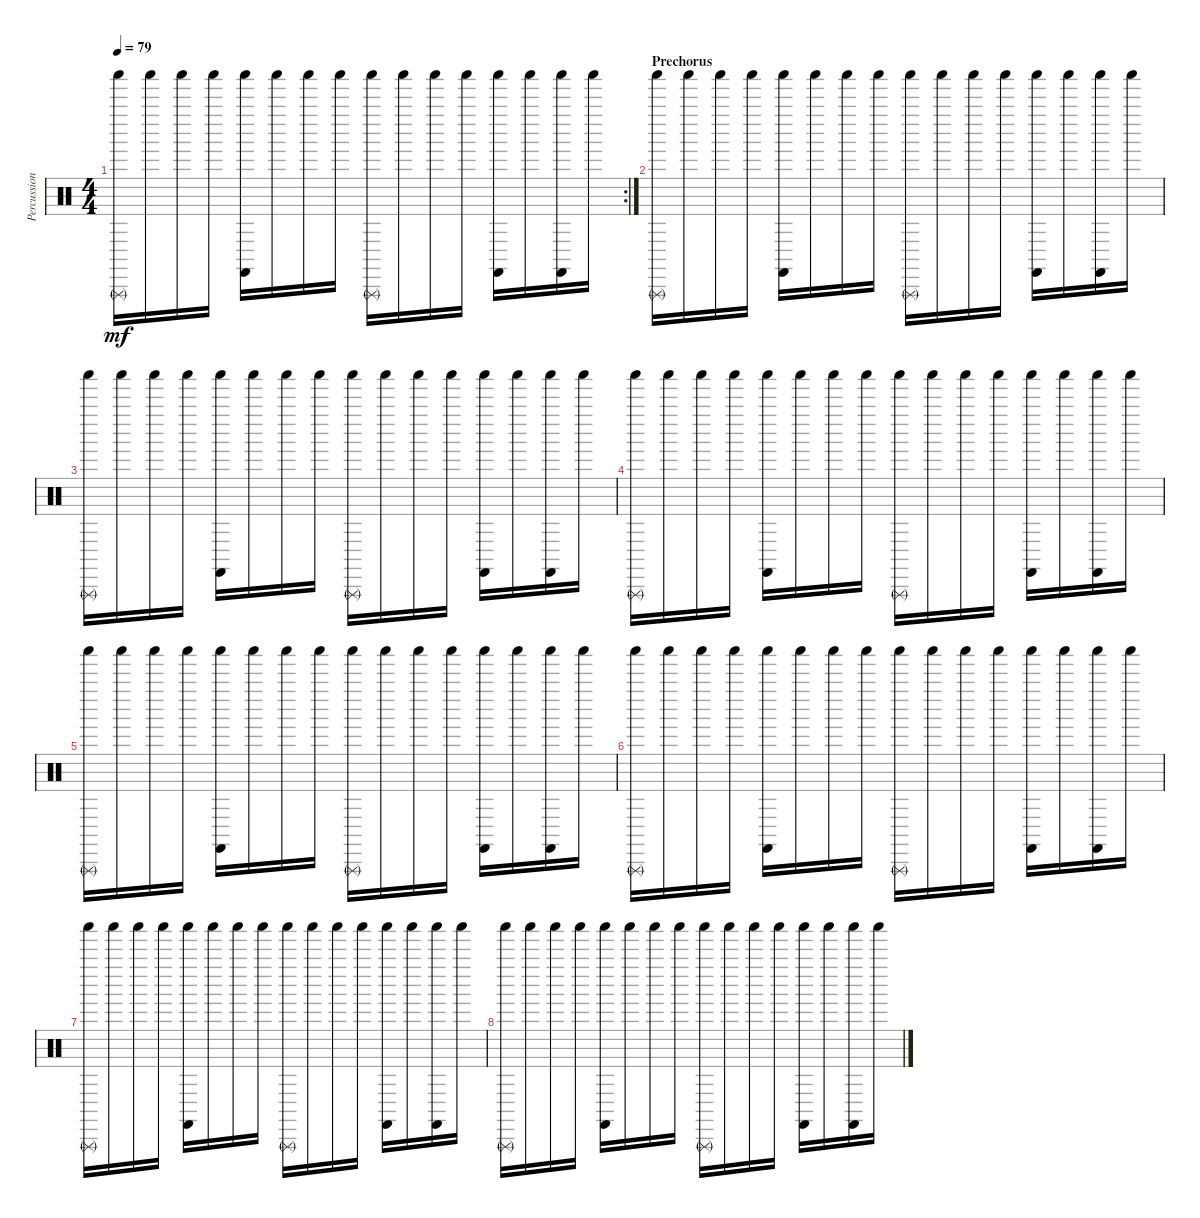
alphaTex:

\track ("Percussion" "Percussion") {instrument percussion}
\staff {score}
\articulation defaults
\rc 2
\ts (4 4)
\tempo 79
\clef neutral
\ks c
("Shaker (hit)" "Triangle (rnute)").16{dy mf} "Shaker (hit)".16 "Shaker (hit)".16 "Shaker (hit)".16 ("Shaker (hit)" "Castanets (hit)").16 "Shaker (hit)".16 "Shaker (hit)".16 "Shaker (hit)".16 ("Shaker (hit)" "Triangle (rnute)").16 "Shaker (hit)".16 "Shaker (hit)".16 "Shaker (hit)".16 ("Shaker (hit)" "Castanets (hit)").16 "Shaker (hit)".16 ("Shaker (hit)" "Castanets (hit)").16 "Shaker (hit)".16 |
\section ("" "Prechorus")
("Shaker (hit)" "Triangle (rnute)").16 "Shaker (hit)".16 "Shaker (hit)".16 "Shaker (hit)".16 ("Shaker (hit)" "Castanets (hit)").16 "Shaker (hit)".16 "Shaker (hit)".16 "Shaker (hit)".16 ("Shaker (hit)" "Triangle (rnute)").16 "Shaker (hit)".16 "Shaker (hit)".16 "Shaker (hit)".16 ("Shaker (hit)" "Castanets (hit)").16 "Shaker (hit)".16 ("Shaker (hit)" "Castanets (hit)").16 "Shaker (hit)".16 |
("Shaker (hit)" "Triangle (rnute)").16 "Shaker (hit)".16 "Shaker (hit)".16 "Shaker (hit)".16 ("Shaker (hit)" "Castanets (hit)").16 "Shaker (hit)".16 "Shaker (hit)".16 "Shaker (hit)".16 ("Shaker (hit)" "Triangle (rnute)").16 "Shaker (hit)".16 "Shaker (hit)".16 "Shaker (hit)".16 ("Shaker (hit)" "Castanets (hit)").16 "Shaker (hit)".16 ("Shaker (hit)" "Castanets (hit)").16 "Shaker (hit)".16 |
("Shaker (hit)" "Triangle (rnute)").16 "Shaker (hit)".16 "Shaker (hit)".16 "Shaker (hit)".16 ("Shaker (hit)" "Castanets (hit)").16 "Shaker (hit)".16 "Shaker (hit)".16 "Shaker (hit)".16 ("Shaker (hit)" "Triangle (rnute)").16 "Shaker (hit)".16 "Shaker (hit)".16 "Shaker (hit)".16 ("Shaker (hit)" "Castanets (hit)").16 "Shaker (hit)".16 ("Shaker (hit)" "Castanets (hit)").16 "Shaker (hit)".16 |
("Shaker (hit)" "Triangle (rnute)").16 "Shaker (hit)".16 "Shaker (hit)".16 "Shaker (hit)".16 ("Shaker (hit)" "Castanets (hit)").16 "Shaker (hit)".16 "Shaker (hit)".16 "Shaker (hit)".16 ("Shaker (hit)" "Triangle (rnute)").16 "Shaker (hit)".16 "Shaker (hit)".16 "Shaker (hit)".16 ("Shaker (hit)" "Castanets (hit)").16 "Shaker (hit)".16 ("Shaker (hit)" "Castanets (hit)").16 "Shaker (hit)".16 |
("Shaker (hit)" "Triangle (rnute)").16 "Shaker (hit)".16 "Shaker (hit)".16 "Shaker (hit)".16 ("Shaker (hit)" "Castanets (hit)").16 "Shaker (hit)".16 "Shaker (hit)".16 "Shaker (hit)".16 ("Shaker (hit)" "Triangle (rnute)").16 "Shaker (hit)".16 "Shaker (hit)".16 "Shaker (hit)".16 ("Shaker (hit)" "Castanets (hit)").16 "Shaker (hit)".16 ("Shaker (hit)" "Castanets (hit)").16 "Shaker (hit)".16 |
("Shaker (hit)" "Triangle (rnute)").16 "Shaker (hit)".16 "Shaker (hit)".16 "Shaker (hit)".16 ("Shaker (hit)" "Castanets (hit)").16 "Shaker (hit)".16 "Shaker (hit)".16 "Shaker (hit)".16 ("Shaker (hit)" "Triangle (rnute)").16 "Shaker (hit)".16 "Shaker (hit)".16 "Shaker (hit)".16 ("Shaker (hit)" "Castanets (hit)").16 "Shaker (hit)".16 ("Shaker (hit)" "Castanets (hit)").16 "Shaker (hit)".16 |
("Shaker (hit)" "Triangle (rnute)").16 "Shaker (hit)".16 "Shaker (hit)".16 "Shaker (hit)".16 ("Shaker (hit)" "Castanets (hit)").16 "Shaker (hit)".16 "Shaker (hit)".16 "Shaker (hit)".16 ("Shaker (hit)" "Triangle (rnute)").16 "Shaker (hit)".16 "Shaker (hit)".16 "Shaker (hit)".16 ("Shaker (hit)" "Castanets (hit)").16 "Shaker (hit)".16 ("Shaker (hit)" "Castanets (hit)").16 "Shaker (hit)".16
